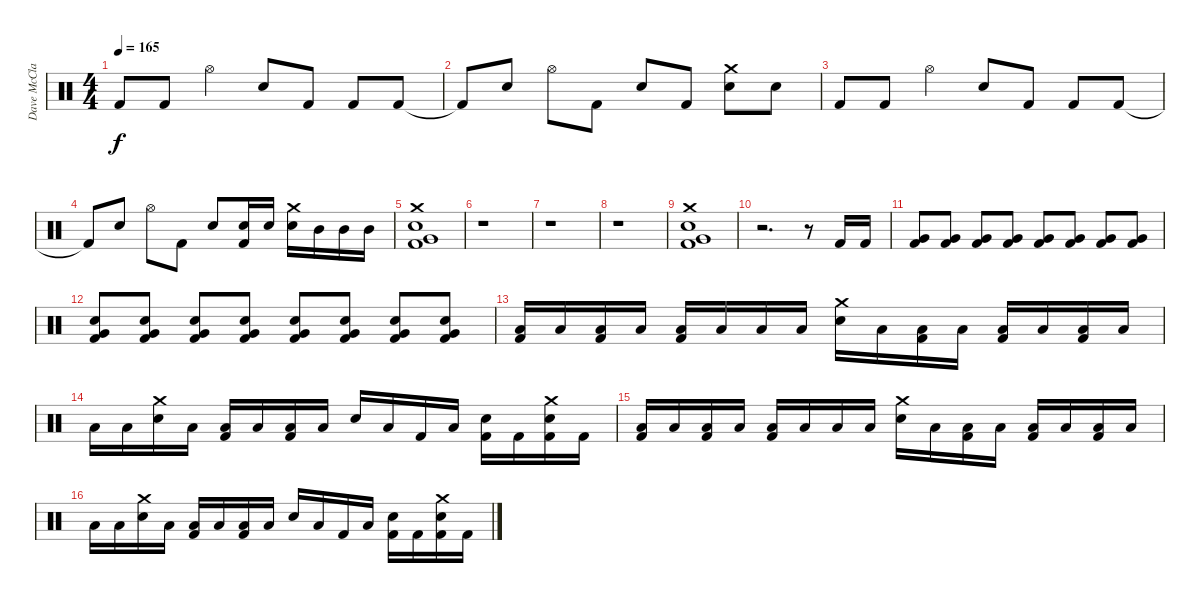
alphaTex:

\track ("Dave McClain" "Dave McCla") {instrument percussion}
\staff {score}
\articulation defaults
\ts (4 4)
\tempo 165
\clef neutral
\ks c "Kick (hit) 2".8{dy f} "Kick (hit) 2".8 "Hi-Hat (open)".4 "Electric Snare (hit)".8 "Kick (hit) 2".8 "Kick (hit) 2".8 "Kick (hit) 2".8
|
"Kick (hit) 2"{t}.8 "Electric Snare (hit)".8 "Hi-Hat (open)".8 "Kick (hit) 2".8 "Electric Snare (hit)".8 "Kick (hit) 2".8 ("Crash medium (hit)" "Electric Snare (hit)").8 "Electric Snare (hit)".8 |
"Kick (hit) 2".8 "Kick (hit) 2".8 "Hi-Hat (open)".4 "Electric Snare (hit)".8 "Kick (hit) 2".8 "Kick (hit) 2".8 "Kick (hit) 2".8 |
"Kick (hit) 2"{t}.8 "Electric Snare (hit)".8 "Hi-Hat (open)".8 "Kick (hit) 2".8 "Electric Snare (hit)".8 ("Electric Snare (hit)" "Kick (hit) 2").16 "Electric Snare (hit)".16 ("Crash medium (hit)" "Electric Snare (hit)").16 "Mid Tom (hit)".16 "Mid Tom (hit)".16 "Mid Tom (hit)".16 |
("Crash medium (hit)" "Electric Snare (hit)" "Very Low Tom (hit)" "Kick (hit) 2").1 |
r.1 |
r.1 |
r.1 |
("Crash medium (hit)" "Electric Snare (hit)" "Very Low Tom (hit)" "Kick (hit) 2").1 |
r.2{d} r.8 "Kick (hit) 2".16 "Kick (hit) 2".16 |
("Very Low Tom (hit)" "Kick (hit) 2").8 ("Very Low Tom (hit)" "Kick (hit) 2").8 ("Very Low Tom (hit)" "Kick (hit) 2").8 ("Very Low Tom (hit)" "Kick (hit) 2").8 ("Very Low Tom (hit)" "Kick (hit) 2").8 ("Very Low Tom (hit)" "Kick (hit) 2").8 ("Very Low Tom (hit)" "Kick (hit) 2").8 ("Very Low Tom (hit)" "Kick (hit) 2").8 |
("Electric Snare (hit)" "Very Low Tom (hit)" "Kick (hit) 2").8 ("Electric Snare (hit)" "Very Low Tom (hit)" "Kick (hit) 2").8 ("Electric Snare (hit)" "Very Low Tom (hit)" "Kick (hit) 2").8 ("Electric Snare (hit)" "Very Low Tom (hit)" "Kick (hit) 2").8 ("Electric Snare (hit)" "Very Low Tom (hit)" "Kick (hit) 2").8 ("Electric Snare (hit)" "Very Low Tom (hit)" "Kick (hit) 2").8 ("Electric Snare (hit)" "Very Low Tom (hit)" "Kick (hit) 2").8 ("Electric Snare (hit)" "Very Low Tom (hit)" "Kick (hit) 2").8 |
("Low Tom (hit)" "Kick (hit) 2").16 "Low Tom (hit)".16 ("Low Tom (hit)" "Kick (hit) 2").16 "Low Tom (hit)".16 ("Low Tom (hit)" "Kick (hit) 2").16 "Low Tom (hit)".16 "Low Tom (hit)".16 "Low Tom (hit)".16 ("Crash medium (hit)" "Electric Snare (hit)").16 "Low Tom (hit)".16 ("Low Tom (hit)" "Kick (hit) 2").16 "Low Tom (hit)".16 ("Low Tom (hit)" "Kick (hit) 2").16 "Low Tom (hit)".16 ("Low Tom (hit)" "Kick (hit) 2").16 "Low Tom (hit)".16 |
"Low Tom (hit)".16 "Low Tom (hit)".16 ("Crash medium (hit)" "Electric Snare (hit)").16 "Low Tom (hit)".16 ("Low Tom (hit)" "Kick (hit) 2").16 "Low Tom (hit)".16 ("Low Tom (hit)" "Kick (hit) 2").16 "Low Tom (hit)".16 "Electric Snare (hit)".16 "Low Tom (hit)".16 "Kick (hit) 2".16 "Low Tom (hit)".16 ("Electric Snare (hit)" "Kick (hit) 2").16 "Kick (hit) 2".16 ("Crash medium (hit)" "Electric Snare (hit)" "Kick (hit) 2").16 "Kick (hit) 2".16 |
("Low Tom (hit)" "Kick (hit) 2").16 "Low Tom (hit)".16 ("Low Tom (hit)" "Kick (hit) 2").16 "Low Tom (hit)".16 ("Low Tom (hit)" "Kick (hit) 2").16 "Low Tom (hit)".16 "Low Tom (hit)".16 "Low Tom (hit)".16 ("Crash medium (hit)" "Electric Snare (hit)").16 "Low Tom (hit)".16 ("Low Tom (hit)" "Kick (hit) 2").16 "Low Tom (hit)".16 ("Low Tom (hit)" "Kick (hit) 2").16 "Low Tom (hit)".16 ("Low Tom (hit)" "Kick (hit) 2").16 "Low Tom (hit)".16 |
"Low Tom (hit)".16 "Low Tom (hit)".16 ("Crash medium (hit)" "Electric Snare (hit)").16 "Low Tom (hit)".16 ("Low Tom (hit)" "Kick (hit) 2").16 "Low Tom (hit)".16 ("Low Tom (hit)" "Kick (hit) 2").16 "Low Tom (hit)".16 "Electric Snare (hit)".16 "Low Tom (hit)".16 "Kick (hit) 2".16 "Low Tom (hit)".16 ("Electric Snare (hit)" "Kick (hit) 2").16 "Kick (hit) 2".16 ("Crash medium (hit)" "Electric Snare (hit)" "Kick (hit) 2").16 "Kick (hit) 2".16
